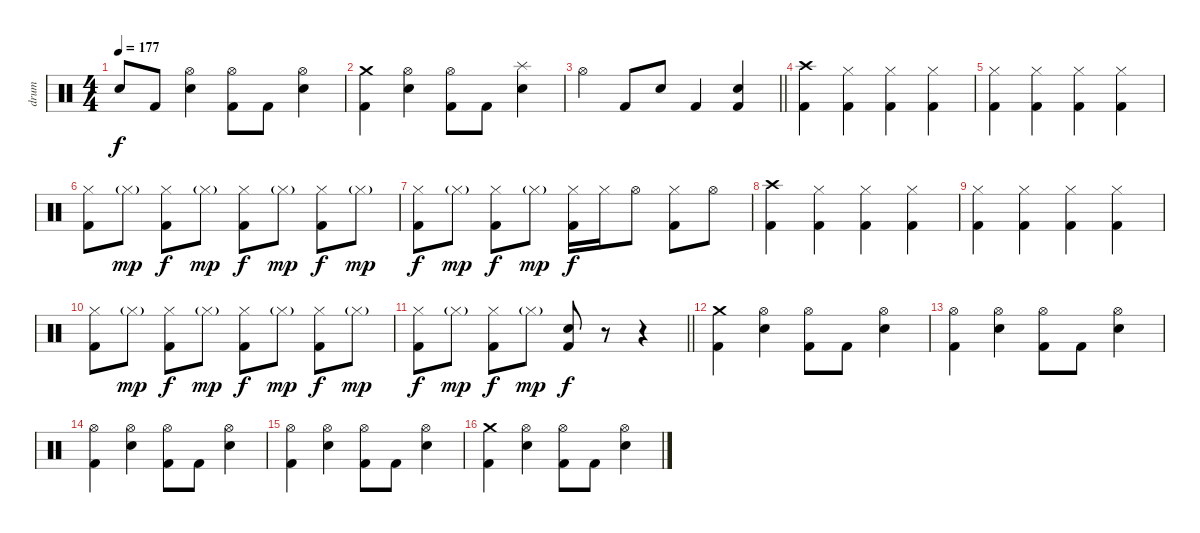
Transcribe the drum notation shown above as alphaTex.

\track ("drum" "drum") {instrument percussion}
\staff {score}
\articulation defaults
\ts (4 4)
\tempo 177
\clef neutral
\ks c "Snare (hit)"{t}.8{dy f} "Kick (hit) 2".8
("Hi-Hat (open)" "Electric Snare (hit)").4 ("Hi-Hat (open)" "Kick (hit) 2").8 "Kick (hit) 2".8 ("Hi-Hat (open)" "Electric Snare (hit)").4 |
("Crash medium (hit)" "Kick (hit) 2").4 ("Hi-Hat (open)" "Electric Snare (hit)").4 ("Hi-Hat (open)" "Kick (hit) 2").8 "Kick (hit) 2".8 ("Splash (hit)" "Electric Snare (hit)").4 |
\barLineRight lightlight "Hi-Hat (open)".4 "Kick (hit) 2".8 "Electric Snare (hit)".8 "Kick (hit) 2".4
("Electric Snare (hit)" "Kick (hit) 2").4 |
\section ("" "")
("Crash high (hit)" "Kick (hit) 2").4 ("Hi-Hat (closed)" "Kick (hit) 2").4 ("Hi-Hat (closed)" "Kick (hit) 2").4 ("Hi-Hat (closed)" "Kick (hit) 2").4 |
("Hi-Hat (closed)" "Kick (hit) 2").4 ("Hi-Hat (closed)" "Kick (hit) 2").4 ("Hi-Hat (closed)" "Kick (hit) 2").4 ("Hi-Hat (closed)" "Kick (hit) 2").4 |
("Hi-Hat (closed)" "Kick (hit) 2").8 "Hi-Hat (closed)"{g}.8{dy mp} ("Hi-Hat (closed)" "Kick (hit) 2").8{dy f} "Hi-Hat (closed)"{g}.8{dy mp} ("Hi-Hat (closed)" "Kick (hit) 2").8{dy f} "Hi-Hat (closed)"{g}.8{dy mp} ("Hi-Hat (closed)" "Kick (hit) 2").8{dy f} "Hi-Hat (closed)"{g}.8{dy mp} |
("Hi-Hat (closed)" "Kick (hit) 2").8{dy f} "Hi-Hat (closed)"{g}.8{dy mp} ("Hi-Hat (closed)" "Kick (hit) 2").8{dy f} "Hi-Hat (closed)"{g}.8{dy mp} ("Hi-Hat (closed)" "Kick (hit) 2").16{dy f} "Hi-Hat (closed)".16 "Hi-Hat (open)".8 ("Hi-Hat (closed)" "Kick (hit) 2").8 "Hi-Hat (open)".8 |
("Crash high (hit)" "Kick (hit) 2").4 ("Hi-Hat (closed)" "Kick (hit) 2").4 ("Hi-Hat (closed)" "Kick (hit) 2").4 ("Hi-Hat (closed)" "Kick (hit) 2").4 |
("Hi-Hat (closed)" "Kick (hit) 2").4 ("Hi-Hat (closed)" "Kick (hit) 2").4 ("Hi-Hat (closed)" "Kick (hit) 2").4 ("Hi-Hat (closed)" "Kick (hit) 2").4 |
("Hi-Hat (closed)" "Kick (hit) 2").8 "Hi-Hat (closed)"{g}.8{dy mp} ("Hi-Hat (closed)" "Kick (hit) 2").8{dy f} "Hi-Hat (closed)"{g}.8{dy mp} ("Hi-Hat (closed)" "Kick (hit) 2").8{dy f} "Hi-Hat (closed)"{g}.8{dy mp} ("Hi-Hat (closed)" "Kick (hit) 2").8{dy f} "Hi-Hat (closed)"{g}.8{dy mp} |
\barLineRight lightlight
("Hi-Hat (closed)" "Kick (hit) 2").8{dy f} "Hi-Hat (closed)"{g}.8{dy mp} ("Hi-Hat (closed)" "Kick (hit) 2").8{dy f} "Hi-Hat (closed)"{g}.8{dy mp} ("Electric Snare (hit)" "Kick (hit) 2").8{dy f} r.8 r.4 |
\section ("" "")
("Crash medium (hit)" "Kick (hit) 2").4 ("Hi-Hat (open)" "Electric Snare (hit)").4 ("Hi-Hat (open)" "Kick (hit) 2").8 "Kick (hit) 2".8 ("Hi-Hat (open)" "Electric Snare (hit)").4 |
("Hi-Hat (open)" "Kick (hit) 2").4 ("Hi-Hat (open)" "Electric Snare (hit)").4 ("Hi-Hat (open)" "Kick (hit) 2").8 "Kick (hit) 2".8 ("Hi-Hat (open)" "Electric Snare (hit)").4 |
("Hi-Hat (open)" "Kick (hit) 2").4 ("Hi-Hat (open)" "Electric Snare (hit)").4 ("Hi-Hat (open)" "Kick (hit) 2").8 "Kick (hit) 2".8 ("Hi-Hat (open)" "Electric Snare (hit)").4 |
("Hi-Hat (open)" "Kick (hit) 2").4 ("Hi-Hat (open)" "Electric Snare (hit)").4 ("Hi-Hat (open)" "Kick (hit) 2").8 "Kick (hit) 2".8 ("Hi-Hat (open)" "Electric Snare (hit)").4 |
("Crash medium (hit)" "Kick (hit) 2").4 ("Hi-Hat (open)" "Electric Snare (hit)").4 ("Hi-Hat (open)" "Kick (hit) 2").8 "Kick (hit) 2".8 ("Hi-Hat (open)" "Electric Snare (hit)").4
